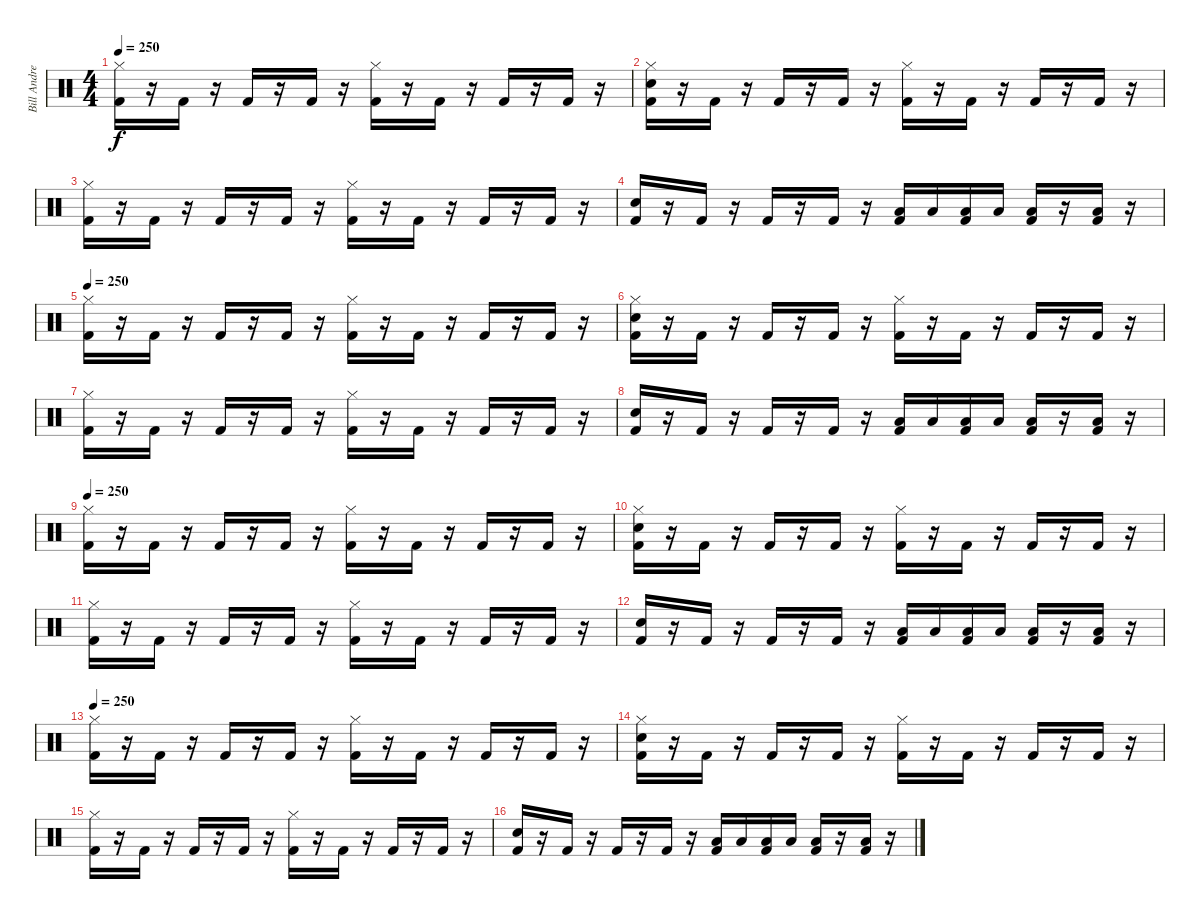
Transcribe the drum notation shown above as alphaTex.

\track ("Bill Andrews" "Bill Andre") {instrument percussion}
\staff {score}
\articulation defaults
\ts (4 4)
\tempo 250
\clef neutral
\ks c
("Hi-Hat (closed)" "Kick (hit) 2").16{dy f} r.16 "Kick (hit) 2".16 r.16 "Kick (hit) 2".16 r.16 "Kick (hit) 2".16 r.16 ("Hi-Hat (closed)" "Kick (hit) 2").16 r.16 "Kick (hit) 2".16 r.16 "Kick (hit) 2".16 r.16 "Kick (hit) 2".16 r.16 |
("Hi-Hat (closed)" "Snare (hit) 2" "Kick (hit) 2").16 r.16 "Kick (hit) 2".16 r.16 "Kick (hit) 2".16 r.16 "Kick (hit) 2".16 r.16 ("Hi-Hat (closed)" "Kick (hit) 2").16 r.16 "Kick (hit) 2".16 r.16 "Kick (hit) 2".16 r.16 "Kick (hit) 2".16 r.16 |
("Hi-Hat (closed)" "Kick (hit) 2").16 r.16 "Kick (hit) 2".16 r.16 "Kick (hit) 2".16 r.16 "Kick (hit) 2".16 r.16 ("Hi-Hat (closed)" "Kick (hit) 2").16 r.16 "Kick (hit) 2".16 r.16 "Kick (hit) 2".16 r.16 "Kick (hit) 2".16 r.16 |
("Snare (hit) 2" "Kick (hit) 2").16 r.16 "Kick (hit) 2".16 r.16 "Kick (hit) 2".16 r.16 "Kick (hit) 2".16 r.16 ("Low Floor Tom (hit)" "Kick (hit) 2").16 "Low Floor Tom (hit)".16 ("Low Floor Tom (hit)" "Kick (hit) 2").16 "Low Floor Tom (hit)".16 ("Low Floor Tom (hit)" "Kick (hit) 2").16 r.16 ("Low Floor Tom (hit)" "Kick (hit) 2").16 r.16 |
\tempo 250
("Hi-Hat (closed)" "Kick (hit) 2").16 r.16 "Kick (hit) 2".16 r.16 "Kick (hit) 2".16 r.16 "Kick (hit) 2".16 r.16 ("Hi-Hat (closed)" "Kick (hit) 2").16 r.16 "Kick (hit) 2".16 r.16 "Kick (hit) 2".16 r.16 "Kick (hit) 2".16 r.16 |
("Hi-Hat (closed)" "Snare (hit) 2" "Kick (hit) 2").16 r.16 "Kick (hit) 2".16 r.16 "Kick (hit) 2".16 r.16 "Kick (hit) 2".16 r.16 ("Hi-Hat (closed)" "Kick (hit) 2").16 r.16 "Kick (hit) 2".16 r.16 "Kick (hit) 2".16 r.16 "Kick (hit) 2".16 r.16 |
("Hi-Hat (closed)" "Kick (hit) 2").16 r.16 "Kick (hit) 2".16 r.16 "Kick (hit) 2".16 r.16 "Kick (hit) 2".16 r.16 ("Hi-Hat (closed)" "Kick (hit) 2").16 r.16 "Kick (hit) 2".16 r.16 "Kick (hit) 2".16 r.16 "Kick (hit) 2".16 r.16 |
("Snare (hit) 2" "Kick (hit) 2").16 r.16 "Kick (hit) 2".16 r.16 "Kick (hit) 2".16 r.16 "Kick (hit) 2".16 r.16 ("Low Floor Tom (hit)" "Kick (hit) 2").16 "Low Floor Tom (hit)".16 ("Low Floor Tom (hit)" "Kick (hit) 2").16 "Low Floor Tom (hit)".16 ("Low Floor Tom (hit)" "Kick (hit) 2").16 r.16 ("Low Floor Tom (hit)" "Kick (hit) 2").16 r.16 |
\tempo 250
("Hi-Hat (closed)" "Kick (hit) 2").16 r.16 "Kick (hit) 2".16 r.16 "Kick (hit) 2".16 r.16 "Kick (hit) 2".16 r.16 ("Hi-Hat (closed)" "Kick (hit) 2").16 r.16 "Kick (hit) 2".16 r.16 "Kick (hit) 2".16 r.16 "Kick (hit) 2".16 r.16 |
("Hi-Hat (closed)" "Snare (hit) 2" "Kick (hit) 2").16 r.16 "Kick (hit) 2".16 r.16 "Kick (hit) 2".16 r.16 "Kick (hit) 2".16 r.16 ("Hi-Hat (closed)" "Kick (hit) 2").16 r.16 "Kick (hit) 2".16 r.16 "Kick (hit) 2".16 r.16 "Kick (hit) 2".16 r.16 |
("Hi-Hat (closed)" "Kick (hit) 2").16 r.16 "Kick (hit) 2".16 r.16 "Kick (hit) 2".16 r.16 "Kick (hit) 2".16 r.16 ("Hi-Hat (closed)" "Kick (hit) 2").16 r.16 "Kick (hit) 2".16 r.16 "Kick (hit) 2".16 r.16 "Kick (hit) 2".16 r.16 |
("Snare (hit) 2" "Kick (hit) 2").16 r.16 "Kick (hit) 2".16 r.16 "Kick (hit) 2".16 r.16 "Kick (hit) 2".16 r.16 ("Low Floor Tom (hit)" "Kick (hit) 2").16 "Low Floor Tom (hit)".16 ("Low Floor Tom (hit)" "Kick (hit) 2").16 "Low Floor Tom (hit)".16 ("Low Floor Tom (hit)" "Kick (hit) 2").16 r.16 ("Low Floor Tom (hit)" "Kick (hit) 2").16 r.16 |
\tempo 250
("Hi-Hat (closed)" "Kick (hit) 2").16 r.16 "Kick (hit) 2".16 r.16 "Kick (hit) 2".16 r.16 "Kick (hit) 2".16 r.16 ("Hi-Hat (closed)" "Kick (hit) 2").16 r.16 "Kick (hit) 2".16 r.16 "Kick (hit) 2".16 r.16 "Kick (hit) 2".16 r.16 |
("Hi-Hat (closed)" "Snare (hit) 2" "Kick (hit) 2").16 r.16 "Kick (hit) 2".16 r.16 "Kick (hit) 2".16 r.16 "Kick (hit) 2".16 r.16 ("Hi-Hat (closed)" "Kick (hit) 2").16 r.16 "Kick (hit) 2".16 r.16 "Kick (hit) 2".16 r.16 "Kick (hit) 2".16 r.16 |
("Hi-Hat (closed)" "Kick (hit) 2").16 r.16 "Kick (hit) 2".16 r.16 "Kick (hit) 2".16 r.16 "Kick (hit) 2".16 r.16 ("Hi-Hat (closed)" "Kick (hit) 2").16 r.16 "Kick (hit) 2".16 r.16 "Kick (hit) 2".16 r.16 "Kick (hit) 2".16 r.16 |
("Snare (hit) 2" "Kick (hit) 2").16 r.16 "Kick (hit) 2".16 r.16 "Kick (hit) 2".16 r.16 "Kick (hit) 2".16 r.16 ("Low Floor Tom (hit)" "Kick (hit) 2").16 "Low Floor Tom (hit)".16 ("Low Floor Tom (hit)" "Kick (hit) 2").16 "Low Floor Tom (hit)".16 ("Low Floor Tom (hit)" "Kick (hit) 2").16 r.16 ("Low Floor Tom (hit)" "Kick (hit) 2").16 r.16
